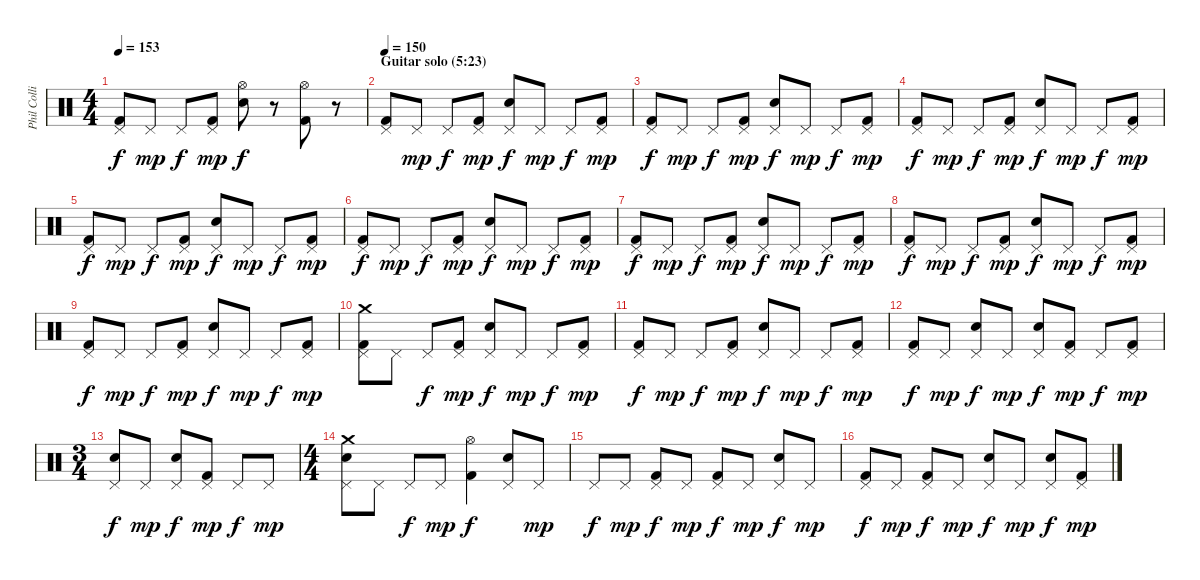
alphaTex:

\track ("Phil Collins (drums)" "Phil Colli") {instrument percussion}
\staff {score}
\articulation defaults
\ts (4 4)
\tempo 153
\clef neutral
\ks c
("Pedal Hi-Hat (hit)" "Kick (hit) 2").8{dy f} "Pedal Hi-Hat (hit)".8{dy mp} "Pedal Hi-Hat (hit)".8{dy f} ("Pedal Hi-Hat (hit)" "Kick (hit) 2").8{dy mp} ("Hi-Hat (open)" "Electric Snare (hit)").8{dy f} r.8 ("Hi-Hat (open)" "Kick (hit) 2").8 r.8 |
\section ("" "Guitar solo (5:23)")
\tempo 150
("Pedal Hi-Hat (hit)" "Kick (hit) 2").8 "Pedal Hi-Hat (hit)".8{dy mp} "Pedal Hi-Hat (hit)".8{dy f} ("Pedal Hi-Hat (hit)" "Kick (hit) 2").8{dy mp} ("Pedal Hi-Hat (hit)" "Electric Snare (hit)").8{dy f} "Pedal Hi-Hat (hit)".8{dy mp} "Pedal Hi-Hat (hit)".8{dy f} ("Pedal Hi-Hat (hit)" "Kick (hit) 2").8{dy mp} |
("Pedal Hi-Hat (hit)" "Kick (hit) 2").8{dy f} "Pedal Hi-Hat (hit)".8{dy mp} "Pedal Hi-Hat (hit)".8{dy f} ("Pedal Hi-Hat (hit)" "Kick (hit) 2").8{dy mp} ("Pedal Hi-Hat (hit)" "Electric Snare (hit)").8{dy f} "Pedal Hi-Hat (hit)".8{dy mp} "Pedal Hi-Hat (hit)".8{dy f} ("Pedal Hi-Hat (hit)" "Kick (hit) 2").8{dy mp} |
("Pedal Hi-Hat (hit)" "Kick (hit) 2").8{dy f} "Pedal Hi-Hat (hit)".8{dy mp} "Pedal Hi-Hat (hit)".8{dy f} ("Pedal Hi-Hat (hit)" "Kick (hit) 2").8{dy mp} ("Pedal Hi-Hat (hit)" "Electric Snare (hit)").8{dy f} "Pedal Hi-Hat (hit)".8{dy mp} "Pedal Hi-Hat (hit)".8{dy f} ("Pedal Hi-Hat (hit)" "Kick (hit) 2").8{dy mp} |
("Pedal Hi-Hat (hit)" "Kick (hit) 2").8{dy f} "Pedal Hi-Hat (hit)".8{dy mp} "Pedal Hi-Hat (hit)".8{dy f} ("Pedal Hi-Hat (hit)" "Kick (hit) 2").8{dy mp} ("Pedal Hi-Hat (hit)" "Electric Snare (hit)").8{dy f} "Pedal Hi-Hat (hit)".8{dy mp} "Pedal Hi-Hat (hit)".8{dy f} ("Pedal Hi-Hat (hit)" "Kick (hit) 2").8{dy mp} |
("Pedal Hi-Hat (hit)" "Kick (hit) 2").8{dy f} "Pedal Hi-Hat (hit)".8{dy mp} "Pedal Hi-Hat (hit)".8{dy f} ("Pedal Hi-Hat (hit)" "Kick (hit) 2").8{dy mp} ("Pedal Hi-Hat (hit)" "Electric Snare (hit)").8{dy f} "Pedal Hi-Hat (hit)".8{dy mp} "Pedal Hi-Hat (hit)".8{dy f} ("Pedal Hi-Hat (hit)" "Kick (hit) 2").8{dy mp} |
("Pedal Hi-Hat (hit)" "Kick (hit) 2").8{dy f} "Pedal Hi-Hat (hit)".8{dy mp} "Pedal Hi-Hat (hit)".8{dy f} ("Pedal Hi-Hat (hit)" "Kick (hit) 2").8{dy mp} ("Pedal Hi-Hat (hit)" "Electric Snare (hit)").8{dy f} "Pedal Hi-Hat (hit)".8{dy mp} "Pedal Hi-Hat (hit)".8{dy f} ("Pedal Hi-Hat (hit)" "Kick (hit) 2").8{dy mp} |
("Pedal Hi-Hat (hit)" "Kick (hit) 2").8{dy f} "Pedal Hi-Hat (hit)".8{dy mp} "Pedal Hi-Hat (hit)".8{dy f} ("Pedal Hi-Hat (hit)" "Kick (hit) 2").8{dy mp} ("Pedal Hi-Hat (hit)" "Electric Snare (hit)").8{dy f} "Pedal Hi-Hat (hit)".8{dy mp} "Pedal Hi-Hat (hit)".8{dy f} ("Pedal Hi-Hat (hit)" "Kick (hit) 2").8{dy mp} |
("Pedal Hi-Hat (hit)" "Kick (hit) 2").8{dy f} "Pedal Hi-Hat (hit)".8{dy mp} "Pedal Hi-Hat (hit)".8{dy f} ("Pedal Hi-Hat (hit)" "Kick (hit) 2").8{dy mp} ("Pedal Hi-Hat (hit)" "Electric Snare (hit)").8{dy f} "Pedal Hi-Hat (hit)".8{dy mp} "Pedal Hi-Hat (hit)".8{dy f} ("Pedal Hi-Hat (hit)" "Kick (hit) 2").8{dy mp} |
("Crash medium (hit)" "Pedal Hi-Hat (hit)" "Kick (hit) 2").8 "Pedal Hi-Hat (hit)".8 "Pedal Hi-Hat (hit)".8{dy f} ("Pedal Hi-Hat (hit)" "Kick (hit) 2").8{dy mp} ("Pedal Hi-Hat (hit)" "Electric Snare (hit)").8{dy f} "Pedal Hi-Hat (hit)".8{dy mp} "Pedal Hi-Hat (hit)".8{dy f} ("Pedal Hi-Hat (hit)" "Kick (hit) 2").8{dy mp} |
("Pedal Hi-Hat (hit)" "Kick (hit) 2").8{dy f} "Pedal Hi-Hat (hit)".8{dy mp} "Pedal Hi-Hat (hit)".8{dy f} ("Pedal Hi-Hat (hit)" "Kick (hit) 2").8{dy mp} ("Pedal Hi-Hat (hit)" "Electric Snare (hit)").8{dy f} "Pedal Hi-Hat (hit)".8{dy mp} "Pedal Hi-Hat (hit)".8{dy f} ("Pedal Hi-Hat (hit)" "Kick (hit) 2").8{dy mp} |
("Pedal Hi-Hat (hit)" "Kick (hit) 2").8{dy f} "Pedal Hi-Hat (hit)".8{dy mp} ("Pedal Hi-Hat (hit)" "Electric Snare (hit)").8{dy f} "Pedal Hi-Hat (hit)".8{dy mp} ("Pedal Hi-Hat (hit)" "Electric Snare (hit)").8{dy f} ("Pedal Hi-Hat (hit)" "Kick (hit) 2").8{dy mp} "Pedal Hi-Hat (hit)".8{dy f} ("Pedal Hi-Hat (hit)" "Kick (hit) 2").8{dy mp} |
\ts (3 4)
("Pedal Hi-Hat (hit)" "Electric Snare (hit)").8{dy f} "Pedal Hi-Hat (hit)".8{dy mp} ("Pedal Hi-Hat (hit)" "Electric Snare (hit)").8{dy f} ("Pedal Hi-Hat (hit)" "Kick (hit) 2").8{dy mp} "Pedal Hi-Hat (hit)".8{dy f} "Pedal Hi-Hat (hit)".8{dy mp} |
\ts (4 4)
("Crash medium (hit)" "Pedal Hi-Hat (hit)" "Electric Snare (hit)").8 "Pedal Hi-Hat (hit)".8 "Pedal Hi-Hat (hit)".8{dy f} "Pedal Hi-Hat (hit)".8{dy mp} ("Hi-Hat (open)" "Kick (hit) 2").4{dy f} ("Pedal Hi-Hat (hit)" "Electric Snare (hit)").8 "Pedal Hi-Hat (hit)".8{dy mp} |
"Pedal Hi-Hat (hit)".8{dy f} "Pedal Hi-Hat (hit)".8{dy mp} ("Pedal Hi-Hat (hit)" "Kick (hit) 2").8{dy f} "Pedal Hi-Hat (hit)".8{dy mp} ("Pedal Hi-Hat (hit)" "Kick (hit) 2").8{dy f} "Pedal Hi-Hat (hit)".8{dy mp} ("Pedal Hi-Hat (hit)" "Electric Snare (hit)").8{dy f} "Pedal Hi-Hat (hit)".8{dy mp} |
("Pedal Hi-Hat (hit)" "Kick (hit) 2").8{dy f} "Pedal Hi-Hat (hit)".8{dy mp} ("Pedal Hi-Hat (hit)" "Kick (hit) 2").8{dy f} "Pedal Hi-Hat (hit)".8{dy mp} ("Pedal Hi-Hat (hit)" "Electric Snare (hit)").8{dy f} "Pedal Hi-Hat (hit)".8{dy mp} ("Pedal Hi-Hat (hit)" "Electric Snare (hit)").8{dy f} ("Pedal Hi-Hat (hit)" "Kick (hit) 2").8{dy mp}
